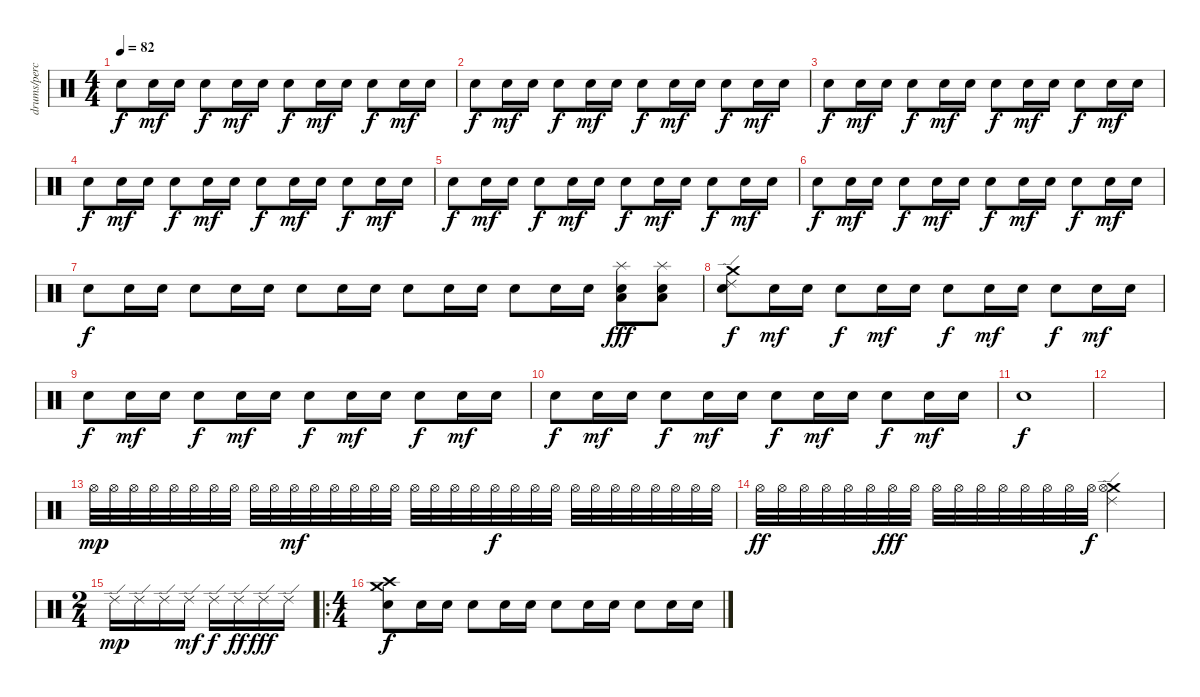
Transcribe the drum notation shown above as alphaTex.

\track ("drums/percussion" "drums/perc") {instrument percussion}
\staff {score}
\articulation defaults
\ts (4 4)
\tempo 82
\clef neutral
\ks c "Electric Snare (hit)".8{dy f} "Electric Snare (hit)".16{dy mf} "Electric Snare (hit)".16 "Electric Snare (hit)".8{dy f} "Electric Snare (hit)".16{dy mf} "Electric Snare (hit)".16 "Electric Snare (hit)".8{dy f} "Electric Snare (hit)".16{dy mf} "Electric Snare (hit)".16 "Electric Snare (hit)".8{dy f} "Electric Snare (hit)".16{dy mf} "Electric Snare (hit)".16
|
"Electric Snare (hit)".8{dy f} "Electric Snare (hit)".16{dy mf} "Electric Snare (hit)".16 "Electric Snare (hit)".8{dy f} "Electric Snare (hit)".16{dy mf} "Electric Snare (hit)".16 "Electric Snare (hit)".8{dy f} "Electric Snare (hit)".16{dy mf} "Electric Snare (hit)".16 "Electric Snare (hit)".8{dy f} "Electric Snare (hit)".16{dy mf} "Electric Snare (hit)".16 |
"Electric Snare (hit)".8{dy f} "Electric Snare (hit)".16{dy mf} "Electric Snare (hit)".16 "Electric Snare (hit)".8{dy f} "Electric Snare (hit)".16{dy mf} "Electric Snare (hit)".16 "Electric Snare (hit)".8{dy f} "Electric Snare (hit)".16{dy mf} "Electric Snare (hit)".16 "Electric Snare (hit)".8{dy f} "Electric Snare (hit)".16{dy mf} "Electric Snare (hit)".16 |
"Electric Snare (hit)".8{dy f} "Electric Snare (hit)".16{dy mf} "Electric Snare (hit)".16 "Electric Snare (hit)".8{dy f} "Electric Snare (hit)".16{dy mf} "Electric Snare (hit)".16 "Electric Snare (hit)".8{dy f} "Electric Snare (hit)".16{dy mf} "Electric Snare (hit)".16 "Electric Snare (hit)".8{dy f} "Electric Snare (hit)".16{dy mf} "Electric Snare (hit)".16 |
"Electric Snare (hit)".8{dy f} "Electric Snare (hit)".16{dy mf} "Electric Snare (hit)".16 "Electric Snare (hit)".8{dy f} "Electric Snare (hit)".16{dy mf} "Electric Snare (hit)".16 "Electric Snare (hit)".8{dy f} "Electric Snare (hit)".16{dy mf} "Electric Snare (hit)".16 "Electric Snare (hit)".8{dy f} "Electric Snare (hit)".16{dy mf} "Electric Snare (hit)".16 |
"Electric Snare (hit)".8{dy f} "Electric Snare (hit)".16{dy mf} "Electric Snare (hit)".16 "Electric Snare (hit)".8{dy f} "Electric Snare (hit)".16{dy mf} "Electric Snare (hit)".16 "Electric Snare (hit)".8{dy f} "Electric Snare (hit)".16{dy mf} "Electric Snare (hit)".16 "Electric Snare (hit)".8{dy f} "Electric Snare (hit)".16{dy mf} "Electric Snare (hit)".16 |
"Electric Snare (hit)".8{dy f} "Electric Snare (hit)".16 "Electric Snare (hit)".16 "Electric Snare (hit)".8 "Electric Snare (hit)".16 "Electric Snare (hit)".16 "Electric Snare (hit)".8 "Electric Snare (hit)".16 "Electric Snare (hit)".16 "Electric Snare (hit)".8 "Electric Snare (hit)".16 "Electric Snare (hit)".16 "Electric Snare (hit)".8 "Electric Snare (hit)".16 "Electric Snare (hit)".16 ("Splash (hit)" "Low Floor Tom (hit)" "Electric Snare (hit)").8{dy fff} ("Splash (hit)" "Low Floor Tom (hit)" "Electric Snare (hit)").8 |
("Crash medium (hit)" "Ride (edge) 2" "Electric Snare (hit)").8{dy f} "Electric Snare (hit)".16{dy mf} "Electric Snare (hit)".16 "Electric Snare (hit)".8{dy f} "Electric Snare (hit)".16{dy mf} "Electric Snare (hit)".16 "Electric Snare (hit)".8{dy f} "Electric Snare (hit)".16{dy mf} "Electric Snare (hit)".16 "Electric Snare (hit)".8{dy f} "Electric Snare (hit)".16{dy mf} "Electric Snare (hit)".16 |
"Electric Snare (hit)".8{dy f} "Electric Snare (hit)".16{dy mf} "Electric Snare (hit)".16 "Electric Snare (hit)".8{dy f} "Electric Snare (hit)".16{dy mf} "Electric Snare (hit)".16 "Electric Snare (hit)".8{dy f} "Electric Snare (hit)".16{dy mf} "Electric Snare (hit)".16 "Electric Snare (hit)".8{dy f} "Electric Snare (hit)".16{dy mf} "Electric Snare (hit)".16 |
"Electric Snare (hit)".8{dy f} "Electric Snare (hit)".16{dy mf} "Electric Snare (hit)".16 "Electric Snare (hit)".8{dy f} "Electric Snare (hit)".16{dy mf} "Electric Snare (hit)".16 "Electric Snare (hit)".8{dy f} "Electric Snare (hit)".16{dy mf} "Electric Snare (hit)".16 "Electric Snare (hit)".8{dy f} "Electric Snare (hit)".16{dy mf} "Electric Snare (hit)".16 |
"Electric Snare (hit)".1{dy f} |
|
"Hi-Hat (open)".32{dy mp} "Hi-Hat (open)".32 "Hi-Hat (open)".32 "Hi-Hat (open)".32 "Hi-Hat (open)".32 "Hi-Hat (open)".32 "Hi-Hat (open)".32 "Hi-Hat (open)".32 "Hi-Hat (open)".32 "Hi-Hat (open)".32 "Hi-Hat (open)".32{dy mf} "Hi-Hat (open)".32 "Hi-Hat (open)".32 "Hi-Hat (open)".32 "Hi-Hat (open)".32 "Hi-Hat (open)".32 "Hi-Hat (open)".32 "Hi-Hat (open)".32 "Hi-Hat (open)".32 "Hi-Hat (open)".32 "Hi-Hat (open)".32{dy f} "Hi-Hat (open)".32 "Hi-Hat (open)".32 "Hi-Hat (open)".32 "Hi-Hat (open)".32 "Hi-Hat (open)".32 "Hi-Hat (open)".32 "Hi-Hat (open)".32 "Hi-Hat (open)".32 "Hi-Hat (open)".32 "Hi-Hat (open)".32 "Hi-Hat (open)".32 |
"Hi-Hat (open)".32{dy ff} "Hi-Hat (open)".32 "Hi-Hat (open)".32 "Hi-Hat (open)".32 "Hi-Hat (open)".32 "Hi-Hat (open)".32 "Hi-Hat (open)".32{dy fff} "Hi-Hat (open)".32 "Hi-Hat (open)".32 "Hi-Hat (open)".32 "Hi-Hat (open)".32 "Hi-Hat (open)".32 "Hi-Hat (open)".32 "Hi-Hat (open)".32 "Hi-Hat (open)".32 "Hi-Hat (open)".32{dy f} ("Ride (edge) 2" "Crash medium (hit)" "Hi-Hat (open)").2 |
\ts (2 4)
"Ride (edge) 2".16{dy mp} "Ride (edge) 2".16 "Ride (edge) 2".16 "Ride (edge) 2".16{dy mf} "Ride (edge) 2".16{dy f} "Ride (edge) 2".16{dy ff} "Ride (edge) 2".16{dy fff} "Ride (edge) 2".16 |
\ro
\ts (4 4)
("Crash medium (hit)" "Crash high (hit)" "Electric Snare (hit)").8{dy f} "Electric Snare (hit)".16 "Electric Snare (hit)".16 "Electric Snare (hit)".8 "Electric Snare (hit)".16 "Electric Snare (hit)".16 "Electric Snare (hit)".8 "Electric Snare (hit)".16 "Electric Snare (hit)".16 "Electric Snare (hit)".8 "Electric Snare (hit)".16 "Electric Snare (hit)".16
